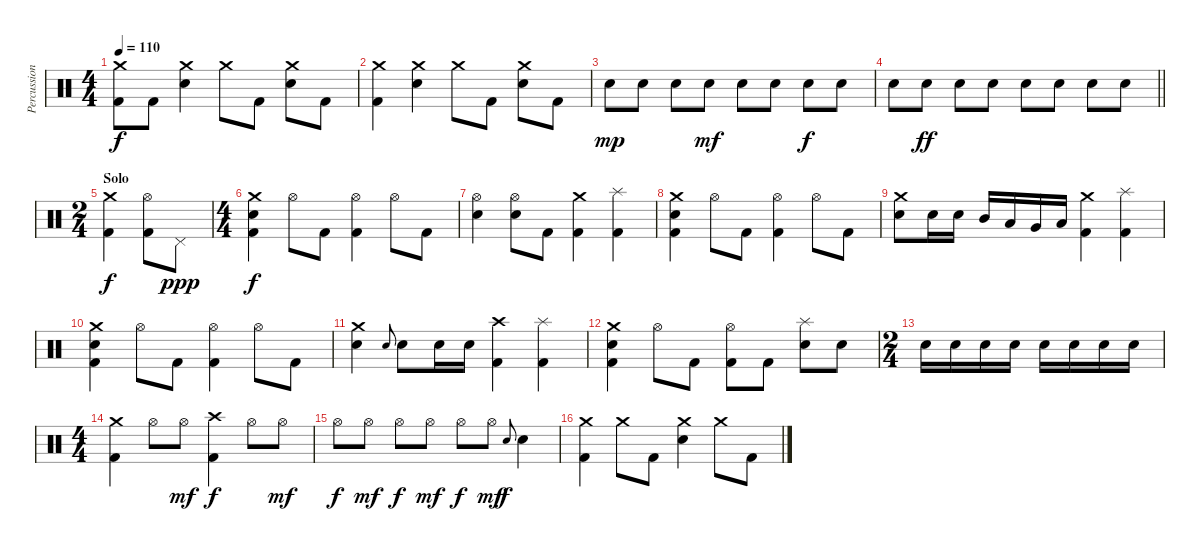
\track ("Percussion" "Percussion") {instrument percussion}
\staff {score}
\articulation defaults
\ts (4 4)
\tempo 110
\clef neutral
\ks c
("Crash medium (hit)" "Kick (hit) 2").8{dy f} "Kick (hit) 2".8 ("Crash medium (hit)" "Electric Snare (hit)").4 "Crash medium (hit)".8 "Kick (hit) 2".8 ("Crash medium (hit)" "Electric Snare (hit)").8 "Kick (hit) 2".8 |
("Crash medium (hit)" "Kick (hit) 2").4 ("Crash medium (hit)" "Electric Snare (hit)").4 "Crash medium (hit)".8 "Kick (hit) 2".8 ("Crash medium (hit)" "Electric Snare (hit)").8 "Kick (hit) 2".8 |
"Electric Snare (hit)".8{dy mp} "Electric Snare (hit)".8 "Electric Snare (hit)".8 "Electric Snare (hit)".8{dy mf} "Electric Snare (hit)".8 "Electric Snare (hit)".8 "Electric Snare (hit)".8{dy f} "Electric Snare (hit)".8 |
\barLineRight lightlight "Electric Snare (hit)".8 "Electric Snare (hit)".8{dy ff} "Electric Snare (hit)".8 "Electric Snare (hit)".8 "Electric Snare (hit)".8 "Electric Snare (hit)".8 "Electric Snare (hit)".8 "Electric Snare (hit)".8
|
\ts (2 4)
\section ("" "Solo")
("Crash medium (hit)" "Kick (hit) 2").4{dy f} ("Hi-Hat (open)" "Kick (hit) 2").8 "Pedal Hi-Hat (hit)".8{dy ppp} |
\ts (4 4)
("Crash medium (hit)" "Electric Snare (hit)" "Kick (hit) 2").4{dy f} "Hi-Hat (open)".8 "Kick (hit) 2".8 ("Hi-Hat (open)" "Kick (hit) 2").4 "Hi-Hat (open)".8 "Kick (hit) 2".8 |
("Hi-Hat (open)" "Electric Snare (hit)").4 ("Hi-Hat (open)" "Electric Snare (hit)").8 "Kick (hit) 2".8 ("Crash medium (hit)" "Kick (hit) 2").4 ("Splash (hit)" "Kick (hit) 2").4 |
("Crash medium (hit)" "Electric Snare (hit)" "Kick (hit) 2").4 "Hi-Hat (open)".8 "Kick (hit) 2".8 ("Hi-Hat (open)" "Kick (hit) 2").4 "Hi-Hat (open)".8 "Kick (hit) 2".8 |
("Crash medium (hit)" "Electric Snare (hit)").8 "Electric Snare (hit)".16 "Electric Snare (hit)".16 "Mid Tom (hit)".16 "Low Tom (hit)".16 "Very Low Tom (hit)".16 "Low Floor Tom (hit)".16 ("Crash medium (hit)" "Kick (hit) 2").4 ("Splash (hit)" "Kick (hit) 2").4 |
("Crash medium (hit)" "Electric Snare (hit)" "Kick (hit) 2").4 "Hi-Hat (open)".8 "Kick (hit) 2".8 ("Hi-Hat (open)" "Kick (hit) 2").4 "Hi-Hat (open)".8 "Kick (hit) 2".8 |
("Crash medium (hit)" "Electric Snare (hit)").4 "Electric Snare (hit)".8{gr onbeat} "Electric Snare (hit)".8 "Electric Snare (hit)".16 "Electric Snare (hit)".16 ("Crash high (hit)" "Kick (hit) 2").4 ("Splash (hit)" "Kick (hit) 2").4 |
("Crash medium (hit)" "Electric Snare (hit)" "Kick (hit) 2").4 "Hi-Hat (open)".8 "Kick (hit) 2".8 ("Hi-Hat (open)" "Kick (hit) 2").8 "Kick (hit) 2".8 ("Splash (hit)" "Electric Snare (hit)").8 "Electric Snare (hit)".8 |
\ts (2 4)
"Electric Snare (hit)".16 "Electric Snare (hit)".16 "Electric Snare (hit)".16 "Electric Snare (hit)".16 "Electric Snare (hit)".16 "Electric Snare (hit)".16 "Electric Snare (hit)".16 "Electric Snare (hit)".16 |
\ts (4 4)
("Crash medium (hit)" "Kick (hit) 2").4 "Hi-Hat (open)".8 "Hi-Hat (open)".8{dy mf} ("Crash high (hit)" "Kick (hit) 2").4{dy f} "Hi-Hat (open)".8 "Hi-Hat (open)".8{dy mf} |
"Hi-Hat (open)".8{dy f} "Hi-Hat (open)".8{dy mf} "Hi-Hat (open)".8{dy f} "Hi-Hat (open)".8{dy mf} "Hi-Hat (open)".8{dy f} "Hi-Hat (open)".8{dy mf} "Electric Snare (hit)".8{gr onbeat dy f} "Electric Snare (hit)".4 |
("Crash medium (hit)" "Kick (hit) 2").4 "Crash medium (hit)".8 "Kick (hit) 2".8 ("Crash medium (hit)" "Electric Snare (hit)").4 "Crash medium (hit)".8 "Kick (hit) 2".8
